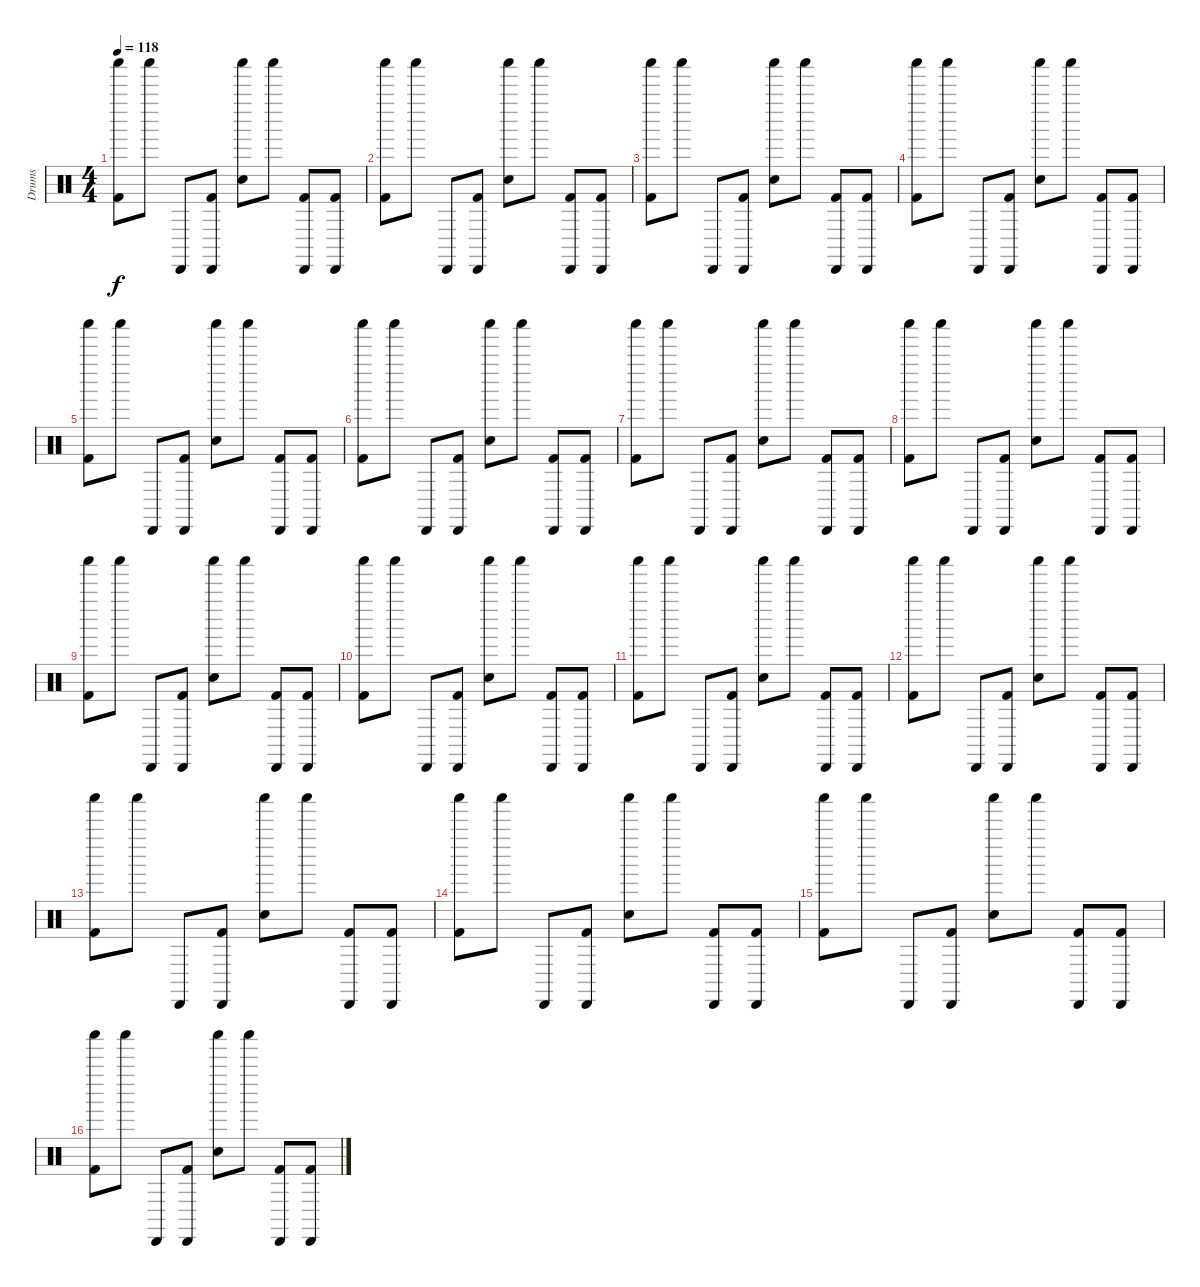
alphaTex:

\track ("Drums" "Drums") {instrument percussion}
\staff {score}
\articulation defaults
\ts (4 4)
\tempo 118
\clef neutral
\ks c
("Shaker (hit)" "Kick (hit) 2").8{dy f} "Shaker (hit)".8 "Cabasa (hit)".8 ("Cabasa (hit)" "Kick (hit) 2").8 ("Shaker (hit)" "Electric Snare (hit)").8 "Shaker (hit)".8 ("Cabasa (hit)" "Kick (hit) 2").8 ("Cabasa (hit)" "Kick (hit) 2").8 |
("Shaker (hit)" "Kick (hit) 2").8 "Shaker (hit)".8 "Cabasa (hit)".8 ("Cabasa (hit)" "Kick (hit) 2").8 ("Shaker (hit)" "Electric Snare (hit)").8 "Shaker (hit)".8 ("Cabasa (hit)" "Kick (hit) 2").8 ("Cabasa (hit)" "Kick (hit) 2").8 |
("Shaker (hit)" "Kick (hit) 2").8 "Shaker (hit)".8 "Cabasa (hit)".8 ("Cabasa (hit)" "Kick (hit) 2").8 ("Shaker (hit)" "Electric Snare (hit)").8 "Shaker (hit)".8 ("Cabasa (hit)" "Kick (hit) 2").8 ("Cabasa (hit)" "Kick (hit) 2").8 |
("Shaker (hit)" "Kick (hit) 2").8 "Shaker (hit)".8 "Cabasa (hit)".8 ("Cabasa (hit)" "Kick (hit) 2").8 ("Shaker (hit)" "Electric Snare (hit)").8 "Shaker (hit)".8 ("Cabasa (hit)" "Kick (hit) 2").8 ("Cabasa (hit)" "Kick (hit) 2").8 |
("Shaker (hit)" "Kick (hit) 2").8 "Shaker (hit)".8 "Cabasa (hit)".8 ("Cabasa (hit)" "Kick (hit) 2").8 ("Shaker (hit)" "Electric Snare (hit)").8 "Shaker (hit)".8 ("Cabasa (hit)" "Kick (hit) 2").8 ("Cabasa (hit)" "Kick (hit) 2").8 |
("Shaker (hit)" "Kick (hit) 2").8 "Shaker (hit)".8 "Cabasa (hit)".8 ("Cabasa (hit)" "Kick (hit) 2").8 ("Shaker (hit)" "Electric Snare (hit)").8 "Shaker (hit)".8 ("Cabasa (hit)" "Kick (hit) 2").8 ("Cabasa (hit)" "Kick (hit) 2").8 |
("Shaker (hit)" "Kick (hit) 2").8 "Shaker (hit)".8 "Cabasa (hit)".8 ("Cabasa (hit)" "Kick (hit) 2").8 ("Shaker (hit)" "Electric Snare (hit)").8 "Shaker (hit)".8 ("Cabasa (hit)" "Kick (hit) 2").8 ("Cabasa (hit)" "Kick (hit) 2").8 |
("Shaker (hit)" "Kick (hit) 2").8 "Shaker (hit)".8 "Cabasa (hit)".8 ("Cabasa (hit)" "Kick (hit) 2").8 ("Shaker (hit)" "Electric Snare (hit)").8 "Shaker (hit)".8 ("Cabasa (hit)" "Kick (hit) 2").8 ("Cabasa (hit)" "Kick (hit) 2").8 |
("Shaker (hit)" "Kick (hit) 2").8 "Shaker (hit)".8 "Cabasa (hit)".8 ("Cabasa (hit)" "Kick (hit) 2").8 ("Shaker (hit)" "Electric Snare (hit)").8 "Shaker (hit)".8 ("Cabasa (hit)" "Kick (hit) 2").8 ("Cabasa (hit)" "Kick (hit) 2").8 |
("Shaker (hit)" "Kick (hit) 2").8 "Shaker (hit)".8 "Cabasa (hit)".8 ("Cabasa (hit)" "Kick (hit) 2").8 ("Shaker (hit)" "Electric Snare (hit)").8 "Shaker (hit)".8 ("Cabasa (hit)" "Kick (hit) 2").8 ("Cabasa (hit)" "Kick (hit) 2").8 |
("Shaker (hit)" "Kick (hit) 2").8 "Shaker (hit)".8 "Cabasa (hit)".8 ("Cabasa (hit)" "Kick (hit) 2").8 ("Shaker (hit)" "Electric Snare (hit)").8 "Shaker (hit)".8 ("Cabasa (hit)" "Kick (hit) 2").8 ("Cabasa (hit)" "Kick (hit) 2").8 |
("Shaker (hit)" "Kick (hit) 2").8 "Shaker (hit)".8 "Cabasa (hit)".8 ("Cabasa (hit)" "Kick (hit) 2").8 ("Shaker (hit)" "Electric Snare (hit)").8 "Shaker (hit)".8 ("Cabasa (hit)" "Kick (hit) 2").8 ("Cabasa (hit)" "Kick (hit) 2").8 |
("Shaker (hit)" "Kick (hit) 2").8 "Shaker (hit)".8 "Cabasa (hit)".8 ("Cabasa (hit)" "Kick (hit) 2").8 ("Shaker (hit)" "Electric Snare (hit)").8 "Shaker (hit)".8 ("Cabasa (hit)" "Kick (hit) 2").8 ("Cabasa (hit)" "Kick (hit) 2").8 |
("Shaker (hit)" "Kick (hit) 2").8 "Shaker (hit)".8 "Cabasa (hit)".8 ("Cabasa (hit)" "Kick (hit) 2").8 ("Shaker (hit)" "Electric Snare (hit)").8 "Shaker (hit)".8 ("Cabasa (hit)" "Kick (hit) 2").8 ("Cabasa (hit)" "Kick (hit) 2").8 |
("Shaker (hit)" "Kick (hit) 2").8 "Shaker (hit)".8 "Cabasa (hit)".8 ("Cabasa (hit)" "Kick (hit) 2").8 ("Shaker (hit)" "Electric Snare (hit)").8 "Shaker (hit)".8 ("Cabasa (hit)" "Kick (hit) 2").8 ("Cabasa (hit)" "Kick (hit) 2").8 |
("Shaker (hit)" "Kick (hit) 2").8 "Shaker (hit)".8 "Cabasa (hit)".8 ("Cabasa (hit)" "Kick (hit) 2").8 ("Shaker (hit)" "Electric Snare (hit)").8 "Shaker (hit)".8 ("Cabasa (hit)" "Kick (hit) 2").8 ("Cabasa (hit)" "Kick (hit) 2").8
